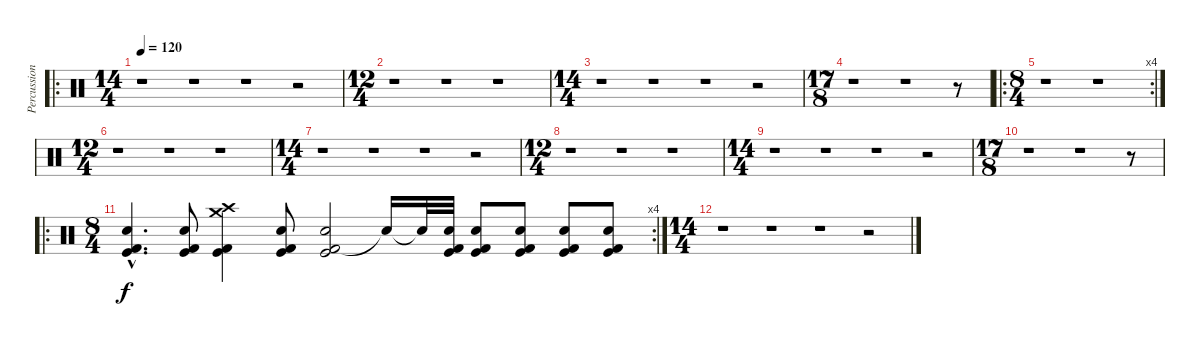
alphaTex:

\track ("Percussion" "Percussion") {instrument percussion}
\staff {score}
\articulation defaults
\ro
\ts (14 4)
\tempo 120
\clef neutral
\ks c
r.1{dy f} r.1 r.1 r.2 |
\ts (12 4)
r.1 r.1 r.1 |
\ts (14 4)
r.1 r.1 r.1 r.2 |
\ts (17 8)
r.1 r.1 r.8 |
\ro
\rc 4
\ts (8 4)
r.1 r.1 |
\ts (12 4)
r.1 r.1 r.1 |
\ts (14 4)
r.1 r.1 r.1 r.2 |
\ts (12 4)
r.1 r.1 r.1 |
\ts (14 4)
r.1 r.1 r.1 r.2 |
\ts (17 8)
r.1 r.1 r.8 |
\ro
\rc 4
\ts (8 4)
("Kick (hit) 2"{hac} "Kick (hit)"{hac} "Electric Snare (hit)"{hac}).4{d} ("Kick (hit) 2" "Kick (hit)" "Electric Snare (hit)").8 ("Crash high (hit)" "Crash medium (hit)" "Kick (hit) 2" "Kick (hit)").4 ("Kick (hit) 2" "Kick (hit)" "Electric Snare (hit)").8 ("Kick (hit) 2" "Kick (hit)" "Electric Snare (hit)").2 "Snare (hit)"{t}.16 "Snare (hit)"{t}.32 ("Kick (hit) 2" "Kick (hit)" "Electric Snare (hit)").32 ("Kick (hit) 2" "Kick (hit)" "Electric Snare (hit)").8 ("Kick (hit) 2" "Kick (hit)" "Electric Snare (hit)").8 ("Kick (hit) 2" "Kick (hit)" "Electric Snare (hit)").8 ("Kick (hit) 2" "Kick (hit)" "Electric Snare (hit)").8 |
\ts (14 4)
r.1 r.1 r.1 r.2
